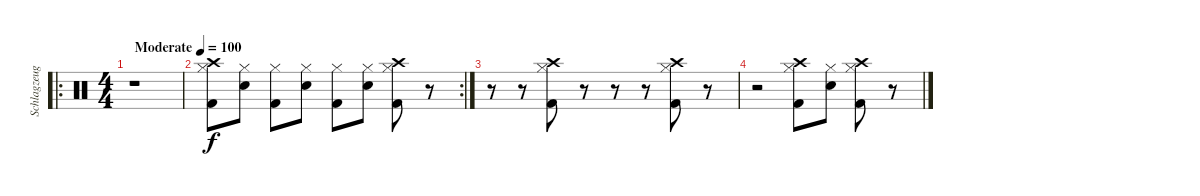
\track ("Schlagzeug" "Schlagzeug") {instrument percussion}
\staff {score}
\articulation defaults
\ro
\ts (4 4)
\tempo (100 "Moderate")
\clef neutral
\ks c
r.1{dy f} |
\rc 2
("Hi-Hat (closed)" "Kick (hit) 2" "Crash high (hit)").8 ("Hi-Hat (closed)" "Snare (hit) 2").8 ("Hi-Hat (closed)" "Kick (hit) 2").8 ("Hi-Hat (closed)" "Snare (hit) 2").8 ("Hi-Hat (closed)" "Kick (hit) 2").8 ("Hi-Hat (closed)" "Snare (hit) 2").8 ("Hi-Hat (closed)" "Kick (hit) 2" "Crash high (hit)").8 r.8 |
r.8 r.8 ("Hi-Hat (closed)" "Kick (hit) 2" "Crash high (hit)").8 r.8 r.8 r.8 ("Hi-Hat (closed)" "Kick (hit) 2" "Crash high (hit)").8 r.8 |
r.2 ("Hi-Hat (closed)" "Kick (hit) 2" "Crash high (hit)").8 ("Hi-Hat (closed)" "Snare (hit) 2").8 ("Hi-Hat (closed)" "Kick (hit) 2" "Crash high (hit)").8 r.8
